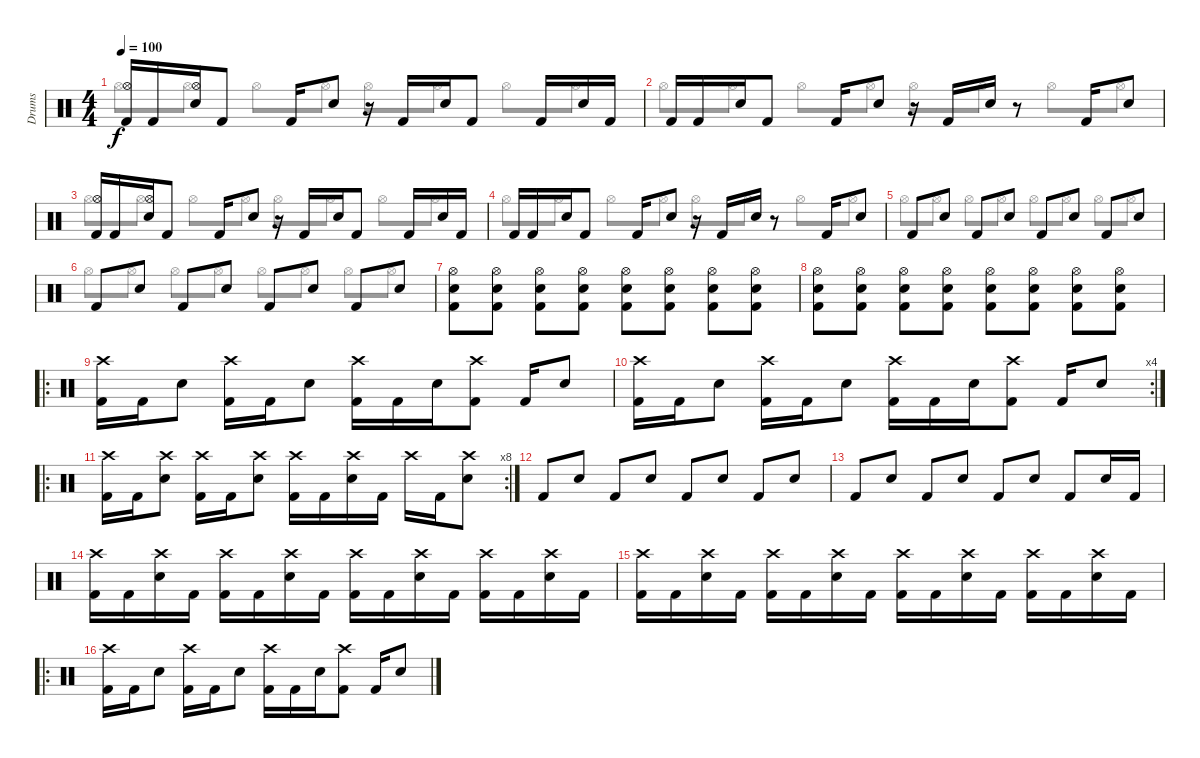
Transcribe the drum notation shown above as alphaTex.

\track ("Drums" "Drums") {instrument percussion}
\staff {score}
\articulation defaults
\voice
\ts (4 4)
\tempo 100
\clef neutral
\ks c
("Hi-Hat (open)" "Kick (hit) 2").16{dy f} "Kick (hit) 2".16 ("Hi-Hat (open)" "Snare (hit) 2").16 "Kick (hit) 2".8 "Kick (hit) 2".16 "Snare (hit) 2".8 r.16 "Kick (hit) 2".16 "Snare (hit) 2".16 "Kick (hit) 2".8 "Kick (hit) 2".16 "Snare (hit) 2".16 "Kick (hit) 2".16 |
"Kick (hit) 2".16 "Kick (hit) 2".16 "Snare (hit) 2".16 "Kick (hit) 2".8 "Kick (hit) 2".16 "Snare (hit) 2".8 r.16 "Kick (hit) 2".16 "Snare (hit) 2".16 r.8 "Kick (hit) 2".16 "Snare (hit) 2".8 |
("Hi-Hat (open)" "Kick (hit) 2").16 "Kick (hit) 2".16 ("Hi-Hat (open)" "Snare (hit) 2").16 "Kick (hit) 2".8 "Kick (hit) 2".16 "Snare (hit) 2".8 r.16 "Kick (hit) 2".16 "Snare (hit) 2".16 "Kick (hit) 2".8 "Kick (hit) 2".16 "Snare (hit) 2".16 "Kick (hit) 2".16 |
"Kick (hit) 2".16 "Kick (hit) 2".16 "Snare (hit) 2".16 "Kick (hit) 2".8 "Kick (hit) 2".16 "Snare (hit) 2".8 r.16 "Kick (hit) 2".16 "Snare (hit) 2".16 r.8 "Kick (hit) 2".16 "Snare (hit) 2".8 |
"Kick (hit) 2".8 "Snare (hit) 2".8 "Kick (hit) 2".8 "Snare (hit) 2".8 "Kick (hit) 2".8 "Snare (hit) 2".8 "Kick (hit) 2".8 "Snare (hit) 2".8 |
"Kick (hit) 2".8 "Snare (hit) 2".8 "Kick (hit) 2".8 "Snare (hit) 2".8 "Kick (hit) 2".8 "Snare (hit) 2".8 "Kick (hit) 2".8 "Snare (hit) 2".8 |
("Hi-Hat (open)" "Kick (hit) 2" "Snare (hit) 2").8 ("Hi-Hat (open)" "Kick (hit) 2" "Snare (hit) 2").8 ("Hi-Hat (open)" "Kick (hit) 2" "Snare (hit) 2").8 ("Hi-Hat (open)" "Kick (hit) 2" "Snare (hit) 2").8 ("Hi-Hat (open)" "Kick (hit) 2" "Snare (hit) 2").8 ("Hi-Hat (open)" "Kick (hit) 2" "Snare (hit) 2").8 ("Hi-Hat (open)" "Kick (hit) 2" "Snare (hit) 2").8 ("Hi-Hat (open)" "Kick (hit) 2" "Snare (hit) 2").8 |
("Hi-Hat (open)" "Kick (hit) 2" "Snare (hit) 2").8 ("Hi-Hat (open)" "Kick (hit) 2" "Snare (hit) 2").8 ("Hi-Hat (open)" "Kick (hit) 2" "Snare (hit) 2").8 ("Hi-Hat (open)" "Kick (hit) 2" "Snare (hit) 2").8 ("Hi-Hat (open)" "Kick (hit) 2" "Snare (hit) 2").8 ("Hi-Hat (open)" "Kick (hit) 2" "Snare (hit) 2").8 ("Hi-Hat (open)" "Kick (hit) 2" "Snare (hit) 2").8 ("Hi-Hat (open)" "Kick (hit) 2" "Snare (hit) 2").8 |
\ro
("Crash high (hit)" "Kick (hit) 2").16 "Kick (hit) 2".16 "Snare (hit) 2".8 ("Crash high (hit)" "Kick (hit) 2").16 "Kick (hit) 2".16 "Snare (hit) 2".8 ("Crash high (hit)" "Kick (hit) 2").16 "Kick (hit) 2".16 "Snare (hit) 2".16 ("Crash high (hit)" "Kick (hit) 2").8 "Kick (hit) 2".16 "Snare (hit) 2".8 |
\rc 4
("Crash high (hit)" "Kick (hit) 2").16 "Kick (hit) 2".16 "Snare (hit) 2".8 ("Crash high (hit)" "Kick (hit) 2").16 "Kick (hit) 2".16 "Snare (hit) 2".8 ("Crash high (hit)" "Kick (hit) 2").16 "Kick (hit) 2".16 "Snare (hit) 2".16 ("Crash high (hit)" "Kick (hit) 2").8 "Kick (hit) 2".16 "Snare (hit) 2".8 |
\ro
\rc 8
("Crash high (hit)" "Kick (hit) 2").16 "Kick (hit) 2".16 ("Crash high (hit)" "Snare (hit) 2").8 ("Crash high (hit)" "Kick (hit) 2").16 "Kick (hit) 2".16 ("Crash high (hit)" "Snare (hit) 2").8 ("Crash high (hit)" "Kick (hit) 2").16 "Kick (hit) 2".16 ("Crash high (hit)" "Snare (hit) 2").16 "Kick (hit) 2".16 "Crash high (hit)".16 "Kick (hit) 2".16 ("Crash high (hit)" "Snare (hit) 2").8 |
"Kick (hit) 2".8 "Snare (hit) 2".8 "Kick (hit) 2".8 "Snare (hit) 2".8 "Kick (hit) 2".8 "Snare (hit) 2".8 "Kick (hit) 2".8 "Snare (hit) 2".8 |
"Kick (hit) 2".8 "Snare (hit) 2".8 "Kick (hit) 2".8 "Snare (hit) 2".8 "Kick (hit) 2".8 "Snare (hit) 2".8 "Kick (hit) 2".8 "Snare (hit) 2".16 "Kick (hit) 2".16 |
("Crash high (hit)" "Kick (hit) 2").16 "Kick (hit) 2".16 ("Crash high (hit)" "Snare (hit) 2").16 "Kick (hit) 2".16 ("Crash high (hit)" "Kick (hit) 2").16 "Kick (hit) 2".16 ("Crash high (hit)" "Snare (hit) 2").16 "Kick (hit) 2".16 ("Crash high (hit)" "Kick (hit) 2").16 "Kick (hit) 2".16 ("Crash high (hit)" "Snare (hit) 2").16 "Kick (hit) 2".16 ("Crash high (hit)" "Kick (hit) 2").16 "Kick (hit) 2".16 ("Crash high (hit)" "Snare (hit) 2").16 "Kick (hit) 2".16 |
("Crash high (hit)" "Kick (hit) 2").16 "Kick (hit) 2".16 ("Crash high (hit)" "Snare (hit) 2").16 "Kick (hit) 2".16 ("Crash high (hit)" "Kick (hit) 2").16 "Kick (hit) 2".16 ("Crash high (hit)" "Snare (hit) 2").16 "Kick (hit) 2".16 ("Crash high (hit)" "Kick (hit) 2").16 "Kick (hit) 2".16 ("Crash high (hit)" "Snare (hit) 2").16 "Kick (hit) 2".16 ("Crash high (hit)" "Kick (hit) 2").16 "Kick (hit) 2".16 ("Crash high (hit)" "Snare (hit) 2").16 "Kick (hit) 2".16 |
\ro
("Crash high (hit)" "Kick (hit) 2").16 "Kick (hit) 2".16 "Snare (hit) 2".8 ("Crash high (hit)" "Kick (hit) 2").16 "Kick (hit) 2".16 "Snare (hit) 2".8 ("Crash high (hit)" "Kick (hit) 2").16 "Kick (hit) 2".16 "Snare (hit) 2".16 ("Crash high (hit)" "Kick (hit) 2").8 "Kick (hit) 2".16 "Snare (hit) 2".8
\voice
\clef neutral
\ottava regular
\simile none
\ks c "Hi-Hat (open)".8{dy f} "Hi-Hat (open)".8 "Hi-Hat (open)".8 "Hi-Hat (open)".8 "Hi-Hat (open)".8 "Hi-Hat (open)".8 "Hi-Hat (open)".8 "Hi-Hat (open)".8
|
"Hi-Hat (open)".8 "Hi-Hat (open)".8 "Hi-Hat (open)".8 "Hi-Hat (open)".8 "Hi-Hat (open)".8 "Hi-Hat (open)".8 "Hi-Hat (open)".8 "Hi-Hat (open)".8 |
"Hi-Hat (open)".8 "Hi-Hat (open)".8 "Hi-Hat (open)".8 "Hi-Hat (open)".8 "Hi-Hat (open)".8 "Hi-Hat (open)".8 "Hi-Hat (open)".8 "Hi-Hat (open)".8 |
"Hi-Hat (open)".8 "Hi-Hat (open)".8 "Hi-Hat (open)".8 "Hi-Hat (open)".8 "Hi-Hat (open)".8 "Hi-Hat (open)".8 "Hi-Hat (open)".8 "Hi-Hat (open)".8 |
"Hi-Hat (open)".8 "Hi-Hat (open)".8 "Hi-Hat (open)".8 "Hi-Hat (open)".8 "Hi-Hat (open)".8 "Hi-Hat (open)".8 "Hi-Hat (open)".8 "Hi-Hat (open)".8 |
"Hi-Hat (open)".8 "Hi-Hat (open)".8 "Hi-Hat (open)".8 "Hi-Hat (open)".8 "Hi-Hat (open)".8 "Hi-Hat (open)".8 "Hi-Hat (open)".8 "Hi-Hat (open)".8 |
|
|
|
|
|
|
|
|
|
